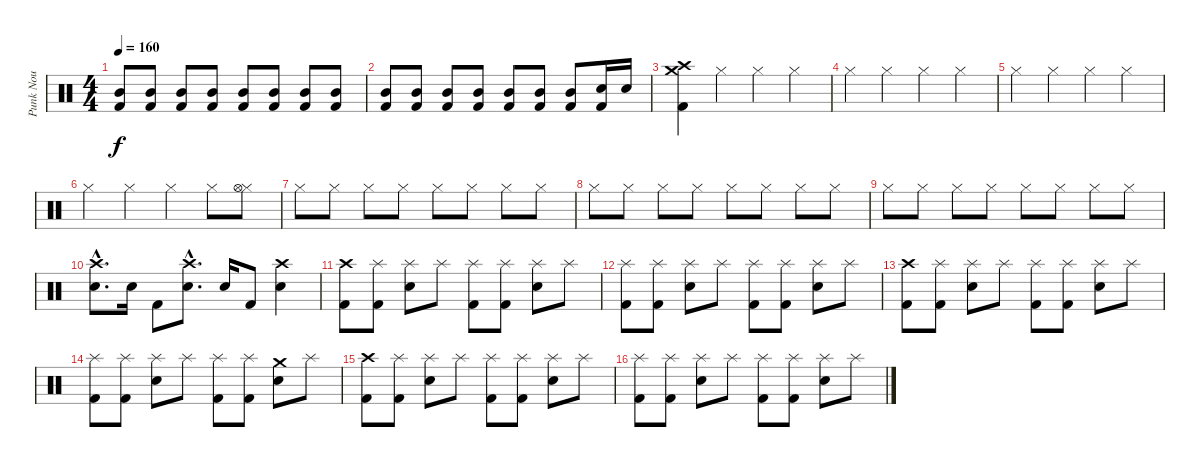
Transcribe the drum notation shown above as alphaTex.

\track ("Punk Nou" "Punk Nou") {instrument percussion}
\staff {score}
\articulation defaults
\ts (4 4)
\tempo 160
\clef neutral
\ks c
("Mid Tom (hit)" "Kick (hit) 2").8{dy f} ("Mid Tom (hit)" "Kick (hit) 2").8 ("Mid Tom (hit)" "Kick (hit) 2").8 ("Mid Tom (hit)" "Kick (hit) 2").8 ("Mid Tom (hit)" "Kick (hit) 2").8 ("Mid Tom (hit)" "Kick (hit) 2").8 ("Mid Tom (hit)" "Kick (hit) 2").8 ("Mid Tom (hit)" "Kick (hit) 2").8 |
("Mid Tom (hit)" "Kick (hit) 2").8 ("Mid Tom (hit)" "Kick (hit) 2").8 ("Mid Tom (hit)" "Kick (hit) 2").8 ("Mid Tom (hit)" "Kick (hit) 2").8 ("Mid Tom (hit)" "Kick (hit) 2").8 ("Mid Tom (hit)" "Kick (hit) 2").8 ("Mid Tom (hit)" "Kick (hit) 2").8 ("Electric Snare (hit)" "Kick (hit) 2").16 "Electric Snare (hit)".16 |
("Crash high (hit)" "Crash medium (hit)" "Kick (hit) 2").4 "Hi-Hat (closed)".4 "Hi-Hat (closed)".4 "Hi-Hat (closed)".4 |
"Hi-Hat (closed)".4 "Hi-Hat (closed)".4 "Hi-Hat (closed)".4 "Hi-Hat (closed)".4 |
"Hi-Hat (closed)".4 "Hi-Hat (closed)".4 "Hi-Hat (closed)".4 "Hi-Hat (closed)".4 |
"Hi-Hat (closed)".4 "Hi-Hat (closed)".4 "Hi-Hat (closed)".4 "Hi-Hat (closed)".8 ("Hi-Hat (closed)" "Hi-Hat (open)").8 |
"Hi-Hat (closed)".8 "Hi-Hat (closed)".8 "Hi-Hat (closed)".8 "Hi-Hat (closed)".8 "Hi-Hat (closed)".8 "Hi-Hat (closed)".8 "Hi-Hat (closed)".8 "Hi-Hat (closed)".8 |
"Hi-Hat (closed)".8 "Hi-Hat (closed)".8 "Hi-Hat (closed)".8 "Hi-Hat (closed)".8 "Hi-Hat (closed)".8 "Hi-Hat (closed)".8 "Hi-Hat (closed)".8 "Hi-Hat (closed)".8 |
"Hi-Hat (closed)".8 "Hi-Hat (closed)".8 "Hi-Hat (closed)".8 "Hi-Hat (closed)".8 "Hi-Hat (closed)".8 "Hi-Hat (closed)".8 "Hi-Hat (closed)".8 "Hi-Hat (closed)".8 |
("Crash high (hit)"{hac} "Electric Snare (hit)"{hac}).8{d} "Electric Snare (hit)".16 "Kick (hit) 2".8 ("Crash high (hit)"{hac} "Electric Snare (hit)"{hac}).8{d} "Electric Snare (hit)".16 "Kick (hit) 2".8 ("Crash high (hit)" "Electric Snare (hit)").4 |
("Crash high (hit)" "Kick (hit) 2").8 ("Splash (hit)" "Kick (hit) 2").8 ("Splash (hit)" "Electric Snare (hit)").8 "Splash (hit)".8 ("Splash (hit)" "Kick (hit) 2").8 ("Splash (hit)" "Kick (hit) 2").8 ("Splash (hit)" "Electric Snare (hit)").8 "Splash (hit)".8 |
("Splash (hit)" "Kick (hit) 2").8 ("Splash (hit)" "Kick (hit) 2").8 ("Splash (hit)" "Electric Snare (hit)").8 "Splash (hit)".8 ("Splash (hit)" "Kick (hit) 2").8 ("Splash (hit)" "Kick (hit) 2").8 ("Splash (hit)" "Electric Snare (hit)").8 "Splash (hit)".8 |
("Crash high (hit)" "Kick (hit) 2").8 ("Splash (hit)" "Kick (hit) 2").8 ("Splash (hit)" "Electric Snare (hit)").8 "Splash (hit)".8 ("Splash (hit)" "Kick (hit) 2").8 ("Splash (hit)" "Kick (hit) 2").8 ("Splash (hit)" "Electric Snare (hit)").8 "Splash (hit)".8 |
("Splash (hit)" "Kick (hit) 2").8 ("Splash (hit)" "Kick (hit) 2").8 ("Splash (hit)" "Electric Snare (hit)").8 "Splash (hit)".8 ("Splash (hit)" "Kick (hit) 2").8 ("Splash (hit)" "Kick (hit) 2").8 ("Crash medium (hit)" "Electric Snare (hit)").8 "Splash (hit)".8 |
("Crash high (hit)" "Kick (hit) 2").8 ("Splash (hit)" "Kick (hit) 2").8 ("Splash (hit)" "Electric Snare (hit)").8 "Splash (hit)".8 ("Splash (hit)" "Kick (hit) 2").8 ("Splash (hit)" "Kick (hit) 2").8 ("Splash (hit)" "Electric Snare (hit)").8 "Splash (hit)".8 |
("Splash (hit)" "Kick (hit) 2").8 ("Splash (hit)" "Kick (hit) 2").8 ("Splash (hit)" "Electric Snare (hit)").8 "Splash (hit)".8 ("Splash (hit)" "Kick (hit) 2").8 ("Splash (hit)" "Kick (hit) 2").8 ("Splash (hit)" "Electric Snare (hit)").8 "Splash (hit)".8
